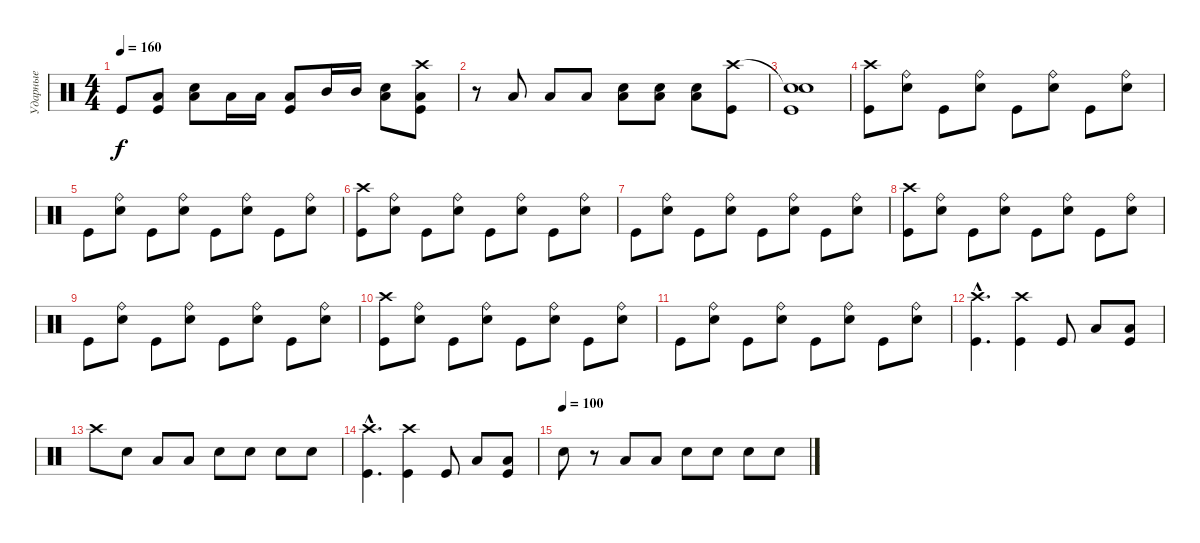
\track ("Ударные" "Ударные") {instrument percussion}
\staff {score}
\articulation defaults
\ts (4 4)
\tempo 160
\clef neutral
\ks c "Kick (hit)".8{dy f}
("Low Tom (hit)" "Kick (hit)").8 ("Low Tom (hit)" "Electric Snare (hit)").8 "Low Tom (hit)".16 "Low Tom (hit)".16 ("Low Tom (hit)" "Kick (hit)").8 "Mid Tom (hit)".16 "Mid Tom (hit)".16 ("Low Tom (hit)" "Electric Snare (hit)").8 ("Crash high (hit)" "Low Tom (hit)" "Kick (hit)").8 |
r.8 "Low Tom (hit)".8 "Low Tom (hit)".8 "Low Tom (hit)".8 ("Electric Snare (hit)" "Low Tom (hit)").8 ("Electric Snare (hit)" "Low Tom (hit)").8 ("Electric Snare (hit)" "Low Tom (hit)").8 ("Crash high (hit)" "Kick (hit)").8 |
("Snare (hit)"{t} "Electric Snare (hit)" "Kick (hit)").1 |
("Crash high (hit)" "Kick (hit)").8 ("Ride (bell)" "Electric Snare (hit)").8 "Kick (hit)".8 ("Ride (bell)" "Electric Snare (hit)").8 "Kick (hit)".8 ("Ride (bell)" "Electric Snare (hit)").8 "Kick (hit)".8 ("Ride (bell)" "Electric Snare (hit)").8 |
"Kick (hit)".8 ("Ride (bell)" "Electric Snare (hit)").8 "Kick (hit)".8 ("Ride (bell)" "Electric Snare (hit)").8 "Kick (hit)".8 ("Ride (bell)" "Electric Snare (hit)").8 "Kick (hit)".8 ("Ride (bell)" "Electric Snare (hit)").8 |
("Crash high (hit)" "Kick (hit)").8 ("Ride (bell)" "Electric Snare (hit)").8 "Kick (hit)".8 ("Ride (bell)" "Electric Snare (hit)").8 "Kick (hit)".8 ("Ride (bell)" "Electric Snare (hit)").8 "Kick (hit)".8 ("Ride (bell)" "Electric Snare (hit)").8 |
"Kick (hit)".8 ("Ride (bell)" "Electric Snare (hit)").8 "Kick (hit)".8 ("Ride (bell)" "Electric Snare (hit)").8 "Kick (hit)".8 ("Ride (bell)" "Electric Snare (hit)").8 "Kick (hit)".8 ("Ride (bell)" "Electric Snare (hit)").8 |
("Crash high (hit)" "Kick (hit)").8 ("Ride (bell)" "Electric Snare (hit)").8 "Kick (hit)".8 ("Ride (bell)" "Electric Snare (hit)").8 "Kick (hit)".8 ("Ride (bell)" "Electric Snare (hit)").8 "Kick (hit)".8 ("Ride (bell)" "Electric Snare (hit)").8 |
"Kick (hit)".8 ("Ride (bell)" "Electric Snare (hit)").8 "Kick (hit)".8 ("Ride (bell)" "Electric Snare (hit)").8 "Kick (hit)".8 ("Ride (bell)" "Electric Snare (hit)").8 "Kick (hit)".8 ("Ride (bell)" "Electric Snare (hit)").8 |
("Crash high (hit)" "Kick (hit)").8 ("Ride (bell)" "Electric Snare (hit)").8 "Kick (hit)".8 ("Ride (bell)" "Electric Snare (hit)").8 "Kick (hit)".8 ("Ride (bell)" "Electric Snare (hit)").8 "Kick (hit)".8 ("Ride (bell)" "Electric Snare (hit)").8 |
"Kick (hit)".8 ("Ride (bell)" "Electric Snare (hit)").8 "Kick (hit)".8 ("Ride (bell)" "Electric Snare (hit)").8 "Kick (hit)".8 ("Ride (bell)" "Electric Snare (hit)").8 "Kick (hit)".8 ("Ride (bell)" "Electric Snare (hit)").8 |
("Crash high (hit)"{hac} "Kick (hit)"{hac}).4{d} ("Crash high (hit)" "Kick (hit)").4 "Kick (hit)".8 "Low Tom (hit)".8 ("Low Tom (hit)" "Kick (hit)").8 |
"Crash high (hit)".8 "Electric Snare (hit)".8 "Low Tom (hit)".8 "Low Tom (hit)".8 "Electric Snare (hit)".8 "Electric Snare (hit)".8 "Electric Snare (hit)".8 "Electric Snare (hit)".8 |
("Crash high (hit)"{hac} "Kick (hit)"{hac}).4{d} ("Crash high (hit)" "Kick (hit)").4 "Kick (hit)".8 "Low Tom (hit)".8 ("Low Tom (hit)" "Kick (hit)").8 |
\tempo (100)
"Electric Snare (hit)".8 r.8 "Low Tom (hit)".8 "Low Tom (hit)".8 "Electric Snare (hit)".8 "Electric Snare (hit)".8 "Electric Snare (hit)".8 "Electric Snare (hit)".8
